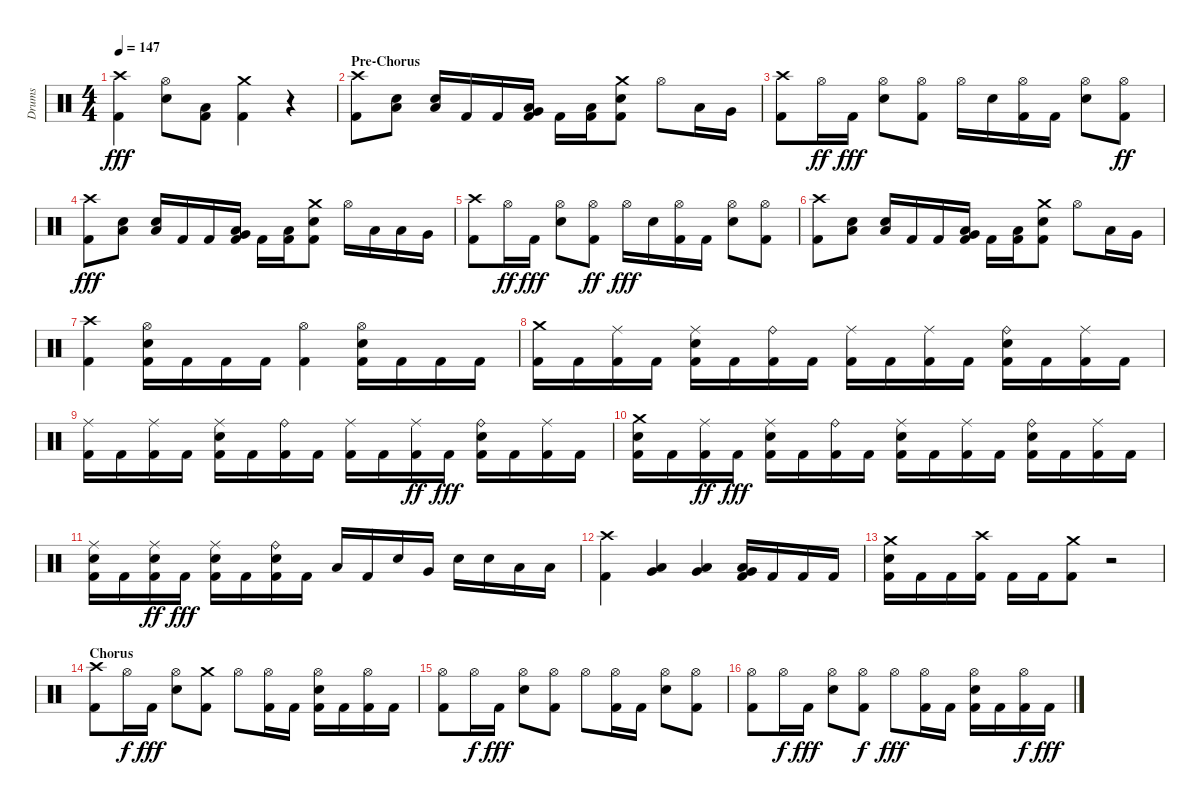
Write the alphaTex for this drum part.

\track ("Drums" "Drums") {instrument percussion}
\staff {score}
\articulation defaults
\ts (4 4)
\tempo 147
\clef neutral
\ks aminor
("Kick (hit) 2" "Crash high (hit)").4{dy fff} ("Snare (hit) 2" "Hi-Hat (open)").8 ("Kick (hit) 2" "Low Floor Tom (hit)").8 ("Kick (hit) 2" "Crash medium (hit)").4 r.4 |
\section ("" "Pre-Chorus")
("Kick (hit) 2" "Crash high (hit)").8 ("Low Floor Tom (hit)" "Snare (hit) 2").8 ("Snare (hit) 2" "Low Floor Tom (hit)").16 "Kick (hit) 2".16 "Kick (hit) 2".16 ("Low Floor Tom (hit)" "Kick (hit) 2" "Very Low Tom (hit)").16 "Kick (hit) 2".16 ("Kick (hit) 2" "Low Floor Tom (hit)").16 ("Kick (hit) 2" "Snare (hit) 2" "Crash medium (hit)").8 "Hi-Hat (open)".8 "Low Tom (hit)".16 "Very Low Tom (hit)".16 |
("Kick (hit) 2" "Crash high (hit)").8 "Hi-Hat (open)".16{dy ff} "Kick (hit) 2".16{dy fff} ("Snare (hit) 2" "Hi-Hat (open)").8 ("Kick (hit) 2" "Hi-Hat (open)").8 "Hi-Hat (open)".16 "Snare (hit) 2".16 ("Kick (hit) 2" "Hi-Hat (open)").16 "Kick (hit) 2".16 ("Snare (hit) 2" "Hi-Hat (open)").8 ("Kick (hit) 2" "Hi-Hat (open)").8{dy ff} |
("Crash high (hit)" "Kick (hit) 2").8{dy fff} ("Low Floor Tom (hit)" "Snare (hit) 2").8 ("Snare (hit) 2" "Low Floor Tom (hit)").16 "Kick (hit) 2".16 "Kick (hit) 2".16 ("Very Low Tom (hit)" "Kick (hit) 2" "Low Floor Tom (hit)").16 "Kick (hit) 2".16 ("Kick (hit) 2" "Low Floor Tom (hit)").16 ("Snare (hit) 2" "Kick (hit) 2" "Crash medium (hit)").8 "Hi-Hat (open)".16 "Low Tom (hit)".16 "Low Tom (hit)".16 "Very Low Tom (hit)".16 |
("Kick (hit) 2" "Crash high (hit)").8 "Hi-Hat (open)".16{dy ff} "Kick (hit) 2".16{dy fff} ("Snare (hit) 2" "Hi-Hat (open)").8 ("Hi-Hat (open)" "Kick (hit) 2").8{dy ff} "Hi-Hat (open)".16{dy fff} "Snare (hit) 2".16 ("Kick (hit) 2" "Hi-Hat (open)").16 "Kick (hit) 2".16 ("Hi-Hat (open)" "Snare (hit) 2").8 ("Kick (hit) 2" "Hi-Hat (open)").8 |
("Crash high (hit)" "Kick (hit) 2").8 ("Snare (hit) 2" "Low Floor Tom (hit)").8 ("Snare (hit) 2" "Low Floor Tom (hit)").16 "Kick (hit) 2".16 "Kick (hit) 2".16 ("Kick (hit) 2" "Low Floor Tom (hit)" "Very Low Tom (hit)").16 "Kick (hit) 2".16 ("Kick (hit) 2" "Low Floor Tom (hit)").16 ("Kick (hit) 2" "Snare (hit) 2" "Crash medium (hit)").8 "Hi-Hat (open)".8 "Low Tom (hit)".16 "Very Low Tom (hit)".16 |
("Kick (hit) 2" "Crash high (hit)").4 ("Kick (hit) 2" "Snare (hit) 2" "Hi-Hat (open)").16 "Kick (hit) 2".16 "Kick (hit) 2".16 "Kick (hit) 2".16 ("Kick (hit) 2" "Hi-Hat (open)").4 ("Hi-Hat (open)" "Snare (hit) 2" "Kick (hit) 2").16 "Kick (hit) 2".16 "Kick (hit) 2".16 "Kick (hit) 2".16 |
("Crash medium (hit)" "Kick (hit) 2").16 "Kick (hit) 2".16 ("Kick (hit) 2" "Ride (middle)").16 "Kick (hit) 2".16 ("Ride (middle)" "Snare (hit) 2" "Kick (hit) 2").16 "Kick (hit) 2".16 ("Kick (hit) 2" "Ride (bell)").16 "Kick (hit) 2".16 ("Kick (hit) 2" "Ride (middle)").16 "Kick (hit) 2".16 ("Kick (hit) 2" "Ride (middle)").16 "Kick (hit) 2".16 ("Kick (hit) 2" "Snare (hit) 2" "Ride (bell)").16 "Kick (hit) 2".16 ("Kick (hit) 2" "Ride (middle)").16 "Kick (hit) 2".16 |
("Kick (hit) 2" "Ride (middle)").16 "Kick (hit) 2".16 ("Kick (hit) 2" "Ride (middle)").16 "Kick (hit) 2".16 ("Ride (middle)" "Kick (hit) 2" "Snare (hit) 2").16 "Kick (hit) 2".16 ("Kick (hit) 2" "Ride (bell)").16 "Kick (hit) 2".16 ("Ride (middle)" "Kick (hit) 2").16 "Kick (hit) 2".16 ("Ride (middle)" "Kick (hit) 2").16{dy ff} "Kick (hit) 2".16{dy fff} ("Snare (hit) 2" "Kick (hit) 2" "Ride (bell)").16 "Kick (hit) 2".16 ("Kick (hit) 2" "Ride (middle)").16 "Kick (hit) 2".16 |
("Kick (hit) 2" "Crash medium (hit)" "Snare (hit) 2").16 "Kick (hit) 2".16 ("Kick (hit) 2" "Ride (middle)").16{dy ff} "Kick (hit) 2".16{dy fff} ("Kick (hit) 2" "Snare (hit) 2" "Ride (middle)").16 "Kick (hit) 2".16 ("Kick (hit) 2" "Ride (bell)").16 "Kick (hit) 2".16 ("Kick (hit) 2" "Snare (hit) 2" "Ride (middle)").16 "Kick (hit) 2".16 ("Kick (hit) 2" "Ride (middle)").16 "Kick (hit) 2".16 ("Snare (hit) 2" "Kick (hit) 2" "Ride (bell)").16 "Kick (hit) 2".16 ("Kick (hit) 2" "Ride (middle)").16 "Kick (hit) 2".16 |
("Ride (middle)" "Snare (hit) 2" "Kick (hit) 2").16 "Kick (hit) 2".16 ("Kick (hit) 2" "Snare (hit) 2" "Ride (middle)").16{dy ff} "Kick (hit) 2".16{dy fff} ("Ride (middle)" "Kick (hit) 2" "Snare (hit) 2").16 "Kick (hit) 2".16 ("Ride (bell)" "Kick (hit) 2" "Snare (hit) 2").16 "Kick (hit) 2".16 "Low Tom (hit)".16 "Kick (hit) 2".16 "Snare (hit) 2".16 "Very Low Tom (hit)".16 "Snare (hit) 2".16 "Snare (hit) 2".16 "Low Floor Tom (hit)".16 "Low Floor Tom (hit)".16 |
("Crash high (hit)" "Kick (hit) 2").4 ("Very Low Tom (hit)" "Low Tom (hit)").4 ("Very Low Tom (hit)" "Low Tom (hit)").4 ("Very Low Tom (hit)" "Low Tom (hit)" "Kick (hit) 2").16 "Kick (hit) 2".16 "Kick (hit) 2".16 "Kick (hit) 2".16 |
("Crash medium (hit)" "Kick (hit) 2" "Snare (hit) 2").16 "Kick (hit) 2".16 "Kick (hit) 2".16 ("Crash high (hit)" "Kick (hit) 2").16 "Kick (hit) 2".16 "Kick (hit) 2".16 ("Kick (hit) 2" "Crash medium (hit)").8 r.2 |
\section ("" "Chorus")
("Kick (hit) 2" "Crash high (hit)").8 "Hi-Hat (open)".16{dy f} "Kick (hit) 2".16{dy fff} ("Snare (hit) 2" "Hi-Hat (open)").8 ("Kick (hit) 2" "Crash medium (hit)").8 "Hi-Hat (open)".8 ("Kick (hit) 2" "Hi-Hat (open)").16 "Kick (hit) 2".16 ("Kick (hit) 2" "Snare (hit) 2" "Hi-Hat (open)").16 "Kick (hit) 2".16 ("Hi-Hat (open)" "Kick (hit) 2").16 "Kick (hit) 2".16 |
("Hi-Hat (open)" "Kick (hit) 2").8 "Hi-Hat (open)".16{dy f} "Kick (hit) 2".16{dy fff} ("Snare (hit) 2" "Hi-Hat (open)").8 ("Kick (hit) 2" "Hi-Hat (open)").8 "Hi-Hat (open)".8 ("Hi-Hat (open)" "Kick (hit) 2").16 "Kick (hit) 2".16 ("Snare (hit) 2" "Hi-Hat (open)").8 ("Kick (hit) 2" "Hi-Hat (open)").8 |
("Kick (hit) 2" "Hi-Hat (open)").8 "Hi-Hat (open)".16{dy f} "Kick (hit) 2".16{dy fff} ("Snare (hit) 2" "Hi-Hat (open)").8 ("Kick (hit) 2" "Hi-Hat (open)").8{dy f} "Hi-Hat (open)".8{dy fff} ("Kick (hit) 2" "Hi-Hat (open)").16 "Kick (hit) 2".16 ("Kick (hit) 2" "Snare (hit) 2" "Hi-Hat (open)").16 "Kick (hit) 2".16 ("Kick (hit) 2" "Hi-Hat (open)").16{dy f} "Kick (hit) 2".16{dy fff}
